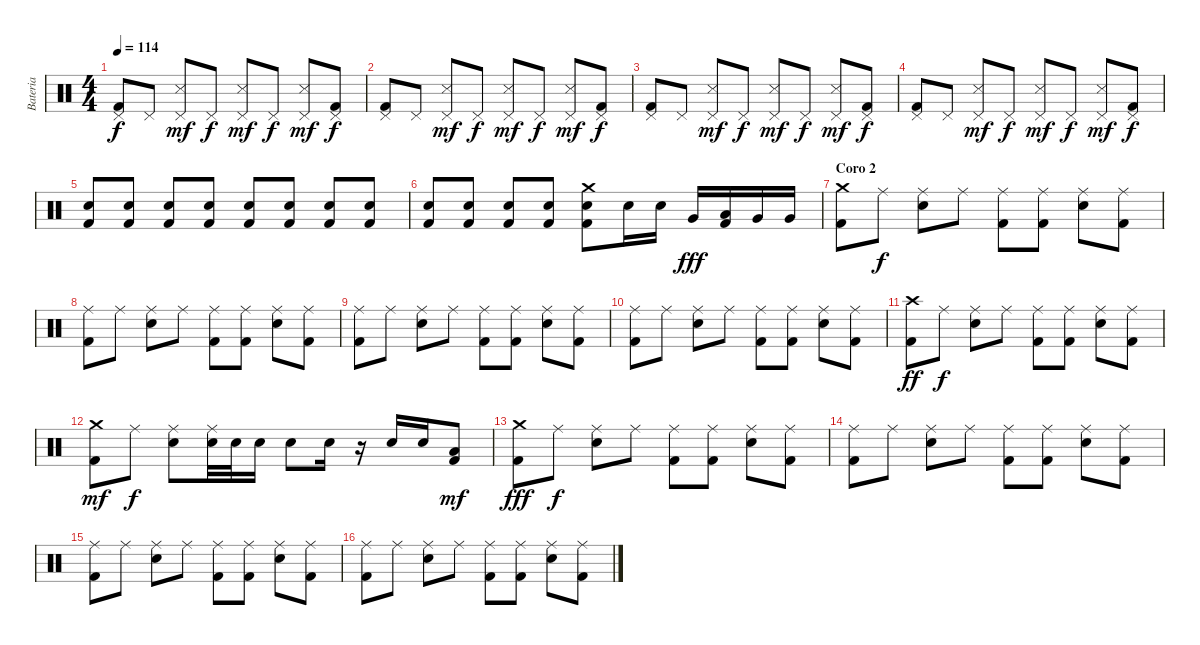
\track ("Bateria" "Bateria") {instrument percussion}
\staff {score}
\articulation defaults
\ts (4 4)
\tempo 114
\clef neutral
\ks c
("Pedal Hi-Hat (hit)" "Kick (hit) 2").8{dy f} "Pedal Hi-Hat (hit)".8 ("Pedal Hi-Hat (hit)" "Snare (side stick) 3").8{dy mf} "Pedal Hi-Hat (hit)".8{dy f} ("Pedal Hi-Hat (hit)" "Snare (side stick) 3").8{dy mf} "Pedal Hi-Hat (hit)".8{dy f} ("Pedal Hi-Hat (hit)" "Snare (side stick) 3").8{dy mf} ("Pedal Hi-Hat (hit)" "Kick (hit) 2").8{dy f} |
("Pedal Hi-Hat (hit)" "Kick (hit) 2").8 "Pedal Hi-Hat (hit)".8 ("Pedal Hi-Hat (hit)" "Snare (side stick) 3").8{dy mf} "Pedal Hi-Hat (hit)".8{dy f} ("Pedal Hi-Hat (hit)" "Snare (side stick) 3").8{dy mf} "Pedal Hi-Hat (hit)".8{dy f} ("Pedal Hi-Hat (hit)" "Snare (side stick) 3").8{dy mf} ("Pedal Hi-Hat (hit)" "Kick (hit) 2").8{dy f} |
("Pedal Hi-Hat (hit)" "Kick (hit) 2").8 "Pedal Hi-Hat (hit)".8 ("Pedal Hi-Hat (hit)" "Snare (side stick) 3").8{dy mf} "Pedal Hi-Hat (hit)".8{dy f} ("Pedal Hi-Hat (hit)" "Snare (side stick) 3").8{dy mf} "Pedal Hi-Hat (hit)".8{dy f} ("Pedal Hi-Hat (hit)" "Snare (side stick) 3").8{dy mf} ("Pedal Hi-Hat (hit)" "Kick (hit) 2").8{dy f} |
("Pedal Hi-Hat (hit)" "Kick (hit) 2").8 "Pedal Hi-Hat (hit)".8 ("Pedal Hi-Hat (hit)" "Snare (side stick) 3").8{dy mf} "Pedal Hi-Hat (hit)".8{dy f} ("Pedal Hi-Hat (hit)" "Snare (side stick) 3").8{dy mf} "Pedal Hi-Hat (hit)".8{dy f} ("Pedal Hi-Hat (hit)" "Snare (side stick) 3").8{dy mf} ("Pedal Hi-Hat (hit)" "Kick (hit) 2").8{dy f} |
("Electric Snare (hit)" "Kick (hit) 2").8{volume 7} ("Electric Snare (hit)" "Kick (hit) 2").8{volume 8} ("Electric Snare (hit)" "Kick (hit) 2").8{volume 13} ("Electric Snare (hit)" "Kick (hit) 2").8 ("Electric Snare (hit)" "Kick (hit) 2").8 ("Electric Snare (hit)" "Kick (hit) 2").8 ("Electric Snare (hit)" "Kick (hit) 2").8 ("Electric Snare (hit)" "Kick (hit) 2").8 |
("Electric Snare (hit)" "Kick (hit) 2").8 ("Electric Snare (hit)" "Kick (hit) 2").8 ("Electric Snare (hit)" "Kick (hit) 2").8 ("Electric Snare (hit)" "Kick (hit) 2").8 ("Crash medium (hit)" "Electric Snare (hit)" "Kick (hit) 2").8 "Electric Snare (hit)".16 "Electric Snare (hit)".16 "Very Low Tom (hit)".16{dy fff} ("Low Tom (hit)" "Kick (hit) 2").16 "Very Low Tom (hit)".16 "Very Low Tom (hit)".16 |
\section ("" "Coro 2")
("Crash medium (hit)" "Kick (hit) 2").8 "Ride (middle)".8{dy f} ("Ride (middle)" "Electric Snare (hit)").8 "Ride (middle)".8 ("Ride (middle)" "Kick (hit) 2").8 ("Ride (middle)" "Kick (hit) 2").8 ("Ride (middle)" "Electric Snare (hit)").8 ("Ride (middle)" "Kick (hit) 2").8 |
("Ride (middle)" "Kick (hit) 2").8 "Ride (middle)".8 ("Ride (middle)" "Electric Snare (hit)").8 "Ride (middle)".8 ("Ride (middle)" "Kick (hit) 2").8 ("Ride (middle)" "Kick (hit) 2").8 ("Ride (middle)" "Electric Snare (hit)").8 ("Ride (middle)" "Kick (hit) 2").8 |
("Ride (middle)" "Kick (hit) 2").8 "Ride (middle)".8 ("Ride (middle)" "Electric Snare (hit)").8 "Ride (middle)".8 ("Ride (middle)" "Kick (hit) 2").8 ("Ride (middle)" "Kick (hit) 2").8 ("Ride (middle)" "Electric Snare (hit)").8 ("Ride (middle)" "Kick (hit) 2").8 |
("Ride (middle)" "Kick (hit) 2").8 "Ride (middle)".8 ("Ride (middle)" "Electric Snare (hit)").8 "Ride (middle)".8 ("Ride (middle)" "Kick (hit) 2").8 ("Ride (middle)" "Kick (hit) 2").8 ("Ride (middle)" "Electric Snare (hit)").8 ("Ride (middle)" "Kick (hit) 2").8 |
("Crash high (hit)" "Kick (hit) 2").8{dy ff} "Ride (middle)".8{dy f} ("Ride (middle)" "Electric Snare (hit)").8 "Ride (middle)".8 ("Ride (middle)" "Kick (hit) 2").8 ("Ride (middle)" "Kick (hit) 2").8 ("Ride (middle)" "Electric Snare (hit)").8 ("Ride (middle)" "Kick (hit) 2").8 |
("Crash medium (hit)" "Kick (hit) 2").8{dy mf} "Ride (middle)".8{dy f} ("Ride (middle)" "Electric Snare (hit)").8 ("Ride (middle)" "Electric Snare (hit)").32 "Electric Snare (hit)".32 "Electric Snare (hit)".16 "Electric Snare (hit)".8 "Electric Snare (hit)".16 r.16 "Electric Snare (hit)".16 "Electric Snare (hit)".16 ("Low Tom (hit)" "Kick (hit) 2").8{dy mf} |
("Crash medium (hit)" "Kick (hit) 2").8{dy fff} "Ride (middle)".8{dy f} ("Ride (middle)" "Electric Snare (hit)").8 "Ride (middle)".8 ("Ride (middle)" "Kick (hit) 2").8 ("Ride (middle)" "Kick (hit) 2").8 ("Ride (middle)" "Electric Snare (hit)").8 ("Ride (middle)" "Kick (hit) 2").8 |
("Ride (middle)" "Kick (hit) 2").8 "Ride (middle)".8 ("Ride (middle)" "Electric Snare (hit)").8 "Ride (middle)".8 ("Ride (middle)" "Kick (hit) 2").8 ("Ride (middle)" "Kick (hit) 2").8 ("Ride (middle)" "Electric Snare (hit)").8 ("Ride (middle)" "Kick (hit) 2").8 |
("Ride (middle)" "Kick (hit) 2").8 "Ride (middle)".8 ("Ride (middle)" "Electric Snare (hit)").8 "Ride (middle)".8 ("Ride (middle)" "Kick (hit) 2").8 ("Ride (middle)" "Kick (hit) 2").8 ("Ride (middle)" "Electric Snare (hit)").8 ("Ride (middle)" "Kick (hit) 2").8 |
("Ride (middle)" "Kick (hit) 2").8 "Ride (middle)".8 ("Ride (middle)" "Electric Snare (hit)").8 "Ride (middle)".8 ("Ride (middle)" "Kick (hit) 2").8 ("Ride (middle)" "Kick (hit) 2").8 ("Ride (middle)" "Electric Snare (hit)").8 ("Ride (middle)" "Kick (hit) 2").8
